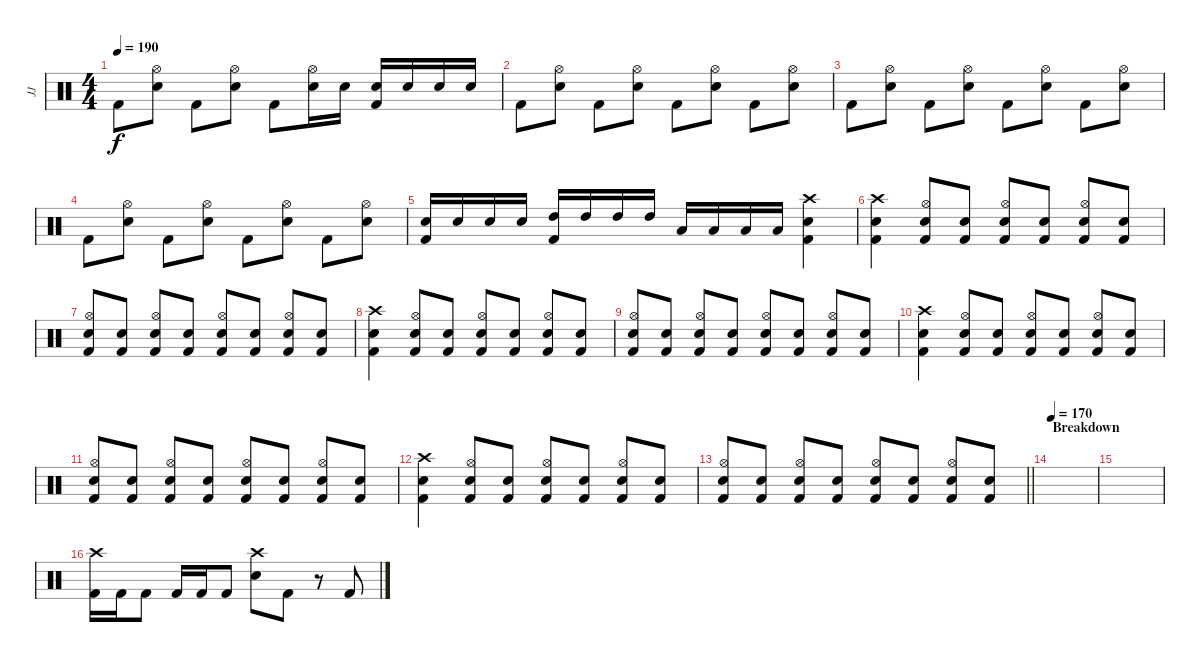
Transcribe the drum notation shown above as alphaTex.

\track ("JJ" "JJ") {instrument percussion}
\staff {score}
\articulation defaults
\ts (4 4)
\tempo 190
\clef neutral
\ks c "Kick (hit) 2".8{dy f}
("Hi-Hat (open)" "Electric Snare (hit)").8 "Kick (hit) 2".8 ("Hi-Hat (open)" "Electric Snare (hit)").8 "Kick (hit) 2".8 ("Hi-Hat (open)" "Electric Snare (hit)").16 "Electric Snare (hit)".16 ("Electric Snare (hit)" "Kick (hit) 2").16 "Electric Snare (hit)".16 "Electric Snare (hit)".16 "Electric Snare (hit)".16 |
"Kick (hit) 2".8 ("Hi-Hat (open)" "Electric Snare (hit)").8 "Kick (hit) 2".8 ("Hi-Hat (open)" "Electric Snare (hit)").8 "Kick (hit) 2".8 ("Hi-Hat (open)" "Electric Snare (hit)").8 "Kick (hit) 2".8 ("Hi-Hat (open)" "Electric Snare (hit)").8 |
"Kick (hit) 2".8 ("Hi-Hat (open)" "Electric Snare (hit)").8 "Kick (hit) 2".8 ("Hi-Hat (open)" "Electric Snare (hit)").8 "Kick (hit) 2".8 ("Hi-Hat (open)" "Electric Snare (hit)").8 "Kick (hit) 2".8 ("Hi-Hat (open)" "Electric Snare (hit)").8 |
"Kick (hit) 2".8 ("Hi-Hat (open)" "Electric Snare (hit)").8 "Kick (hit) 2".8 ("Hi-Hat (open)" "Electric Snare (hit)").8 "Kick (hit) 2".8 ("Hi-Hat (open)" "Electric Snare (hit)").8 "Kick (hit) 2".8 ("Hi-Hat (open)" "Electric Snare (hit)").8 |
("Electric Snare (hit)" "Kick (hit) 2").16 "Electric Snare (hit)".16 "Electric Snare (hit)".16 "Electric Snare (hit)".16 ("High Tom (hit)" "Kick (hit) 2").16 "High Tom (hit)".16 "High Tom (hit)".16 "High Tom (hit)".16 "Low Floor Tom (hit)".16 "Low Floor Tom (hit)".16 "Low Floor Tom (hit)".16 "Low Floor Tom (hit)".16 ("Crash high (hit)" "Electric Snare (hit)" "Kick (hit) 2").4 |
("Crash high (hit)" "Electric Snare (hit)" "Kick (hit) 2").4 ("Hi-Hat (open)" "Electric Snare (hit)" "Kick (hit) 2").8 ("Electric Snare (hit)" "Kick (hit) 2").8 ("Hi-Hat (open)" "Electric Snare (hit)" "Kick (hit) 2").8 ("Electric Snare (hit)" "Kick (hit) 2").8 ("Hi-Hat (open)" "Electric Snare (hit)" "Kick (hit) 2").8 ("Electric Snare (hit)" "Kick (hit) 2").8 |
("Hi-Hat (open)" "Electric Snare (hit)" "Kick (hit) 2").8 ("Electric Snare (hit)" "Kick (hit) 2").8 ("Hi-Hat (open)" "Electric Snare (hit)" "Kick (hit) 2").8 ("Electric Snare (hit)" "Kick (hit) 2").8 ("Hi-Hat (open)" "Electric Snare (hit)" "Kick (hit) 2").8 ("Electric Snare (hit)" "Kick (hit) 2").8 ("Hi-Hat (open)" "Electric Snare (hit)" "Kick (hit) 2").8 ("Electric Snare (hit)" "Kick (hit) 2").8 |
("Crash high (hit)" "Electric Snare (hit)" "Kick (hit) 2").4 ("Hi-Hat (open)" "Electric Snare (hit)" "Kick (hit) 2").8 ("Electric Snare (hit)" "Kick (hit) 2").8 ("Hi-Hat (open)" "Electric Snare (hit)" "Kick (hit) 2").8 ("Electric Snare (hit)" "Kick (hit) 2").8 ("Hi-Hat (open)" "Electric Snare (hit)" "Kick (hit) 2").8 ("Electric Snare (hit)" "Kick (hit) 2").8 |
("Hi-Hat (open)" "Electric Snare (hit)" "Kick (hit) 2").8 ("Electric Snare (hit)" "Kick (hit) 2").8 ("Hi-Hat (open)" "Electric Snare (hit)" "Kick (hit) 2").8 ("Electric Snare (hit)" "Kick (hit) 2").8 ("Hi-Hat (open)" "Electric Snare (hit)" "Kick (hit) 2").8 ("Electric Snare (hit)" "Kick (hit) 2").8 ("Hi-Hat (open)" "Electric Snare (hit)" "Kick (hit) 2").8 ("Electric Snare (hit)" "Kick (hit) 2").8 |
("Crash high (hit)" "Electric Snare (hit)" "Kick (hit) 2").4 ("Hi-Hat (open)" "Electric Snare (hit)" "Kick (hit) 2").8 ("Electric Snare (hit)" "Kick (hit) 2").8 ("Hi-Hat (open)" "Electric Snare (hit)" "Kick (hit) 2").8 ("Electric Snare (hit)" "Kick (hit) 2").8 ("Hi-Hat (open)" "Electric Snare (hit)" "Kick (hit) 2").8 ("Electric Snare (hit)" "Kick (hit) 2").8 |
("Hi-Hat (open)" "Electric Snare (hit)" "Kick (hit) 2").8 ("Electric Snare (hit)" "Kick (hit) 2").8 ("Hi-Hat (open)" "Electric Snare (hit)" "Kick (hit) 2").8 ("Electric Snare (hit)" "Kick (hit) 2").8 ("Hi-Hat (open)" "Electric Snare (hit)" "Kick (hit) 2").8 ("Electric Snare (hit)" "Kick (hit) 2").8 ("Hi-Hat (open)" "Electric Snare (hit)" "Kick (hit) 2").8 ("Electric Snare (hit)" "Kick (hit) 2").8 |
("Crash high (hit)" "Electric Snare (hit)" "Kick (hit) 2").4 ("Hi-Hat (open)" "Electric Snare (hit)" "Kick (hit) 2").8 ("Electric Snare (hit)" "Kick (hit) 2").8 ("Hi-Hat (open)" "Electric Snare (hit)" "Kick (hit) 2").8 ("Electric Snare (hit)" "Kick (hit) 2").8 ("Hi-Hat (open)" "Electric Snare (hit)" "Kick (hit) 2").8 ("Electric Snare (hit)" "Kick (hit) 2").8 |
\barLineRight lightlight
("Hi-Hat (open)" "Electric Snare (hit)" "Kick (hit) 2").8 ("Electric Snare (hit)" "Kick (hit) 2").8 ("Hi-Hat (open)" "Electric Snare (hit)" "Kick (hit) 2").8 ("Electric Snare (hit)" "Kick (hit) 2").8 ("Hi-Hat (open)" "Electric Snare (hit)" "Kick (hit) 2").8 ("Electric Snare (hit)" "Kick (hit) 2").8 ("Hi-Hat (open)" "Electric Snare (hit)" "Kick (hit) 2").8 ("Electric Snare (hit)" "Kick (hit) 2").8 |
\section ("" "Breakdown")
\tempo 170
|
|
("Crash high (hit)" "Kick (hit) 2").16 "Kick (hit) 2".16 "Kick (hit) 2".8 "Kick (hit) 2".16 "Kick (hit) 2".16 "Kick (hit) 2".8 ("Crash high (hit)" "Electric Snare (hit)").8 "Kick (hit) 2".8 r.8 "Kick (hit) 2".8
